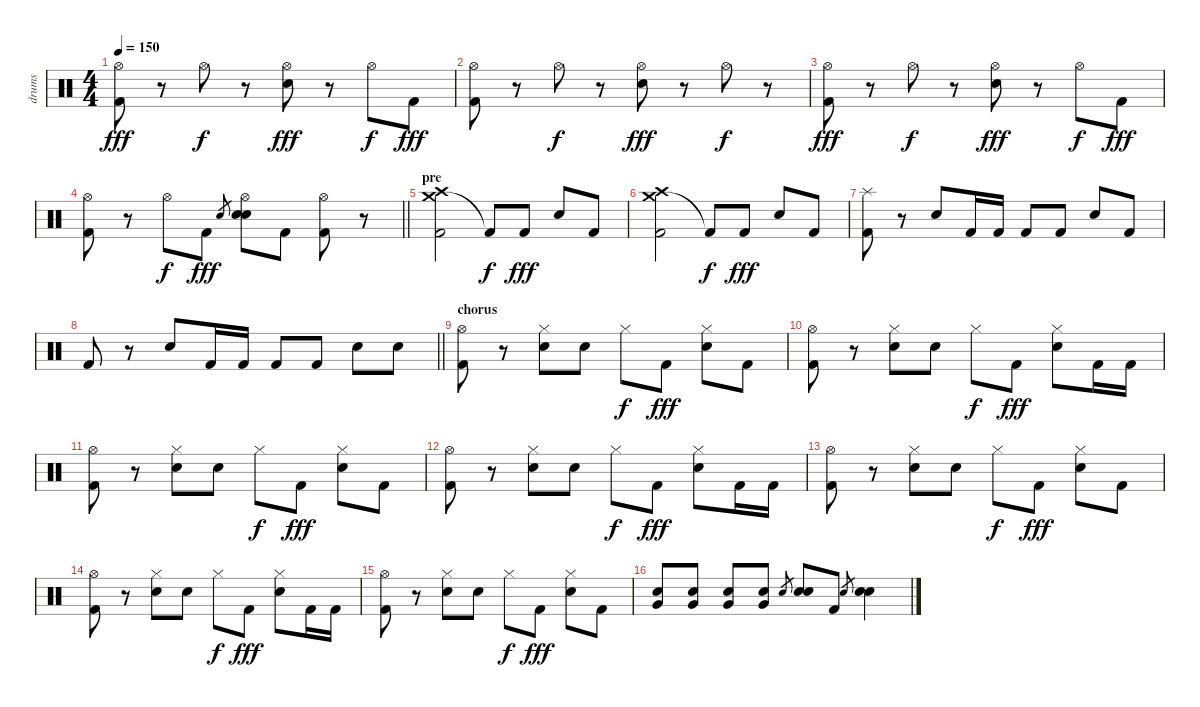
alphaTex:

\track ("drums" "drums") {instrument percussion}
\staff {score}
\articulation defaults
\ts (4 4)
\tempo 150
\clef neutral
\ks c
("Hi-Hat (open)" "Kick (hit) 2").8{dy fff} r.8 "Hi-Hat (open)".8{dy f} r.8 ("Hi-Hat (open)" "Snare (hit) 2").8{dy fff} r.8 "Hi-Hat (open)".8{dy f} "Kick (hit) 2".8{dy fff} |
("Hi-Hat (open)" "Kick (hit) 2").8 r.8 "Hi-Hat (open)".8{dy f} r.8 ("Hi-Hat (open)" "Snare (hit) 2").8{dy fff} r.8 "Hi-Hat (open)".8{dy f} r.8 |
("Hi-Hat (open)" "Kick (hit) 2").8{dy fff} r.8 "Hi-Hat (open)".8{dy f} r.8 ("Hi-Hat (open)" "Snare (hit) 2").8{dy fff} r.8 "Hi-Hat (open)".8{dy f} "Kick (hit) 2".8{dy fff} |
\barLineRight lightlight
("Hi-Hat (open)" "Kick (hit) 2").8 r.8 "Hi-Hat (open)".8{dy f} "Kick (hit) 2".8{dy fff} "Snare (hit) 2".8{gr} ("Hi-Hat (open)" "Snare (hit) 2" "Snare (hit) 2").8 "Kick (hit) 2".8 ("Hi-Hat (open)" "Kick (hit) 2").8 r.8 |
\section ("" "pre")
("Crash medium (hit)" "Crash high (hit)" "Kick (hit) 2").2 "Kick (hit) 2"{t}.8{dy f} "Kick (hit) 2".8{dy fff} "Snare (hit) 2".8 "Kick (hit) 2".8 |
("Crash medium (hit)" "Crash high (hit)" "Kick (hit) 2").2 "Kick (hit) 2"{t}.8{dy f} "Kick (hit) 2".8{dy fff} "Snare (hit) 2".8 "Kick (hit) 2".8 |
("Splash (hit)" "Kick (hit) 2").8 r.8 "Snare (hit) 2".8 "Kick (hit) 2".16 "Kick (hit) 2".16 "Kick (hit) 2".8 "Kick (hit) 2".8 "Snare (hit) 2".8 "Kick (hit) 2".8 |
\barLineRight lightlight "Kick (hit) 2".8
r.8 "Snare (hit) 2".8 "Kick (hit) 2".16 "Kick (hit) 2".16 "Kick (hit) 2".8 "Kick (hit) 2".8 "Snare (hit) 2".8 "Snare (hit) 2".8 |
\section ("" "chorus")
("Hi-Hat (open)" "Kick (hit) 2").8 r.8 ("Hi-Hat (closed)" "Snare (hit) 2").8 "Snare (hit) 2".8 "Hi-Hat (closed)".8{dy f} "Kick (hit) 2".8{dy fff} ("Hi-Hat (closed)" "Snare (hit) 2").8 "Kick (hit) 2".8 |
("Hi-Hat (open)" "Kick (hit) 2").8 r.8 ("Hi-Hat (closed)" "Snare (hit) 2").8 "Snare (hit) 2".8 "Hi-Hat (closed)".8{dy f} "Kick (hit) 2".8{dy fff} ("Hi-Hat (closed)" "Snare (hit) 2").8 "Kick (hit) 2".16 "Kick (hit) 2".16 |
("Hi-Hat (open)" "Kick (hit) 2").8 r.8 ("Hi-Hat (closed)" "Snare (hit) 2").8 "Snare (hit) 2".8 "Hi-Hat (closed)".8{dy f} "Kick (hit) 2".8{dy fff} ("Hi-Hat (closed)" "Snare (hit) 2").8 "Kick (hit) 2".8 |
("Hi-Hat (open)" "Kick (hit) 2").8 r.8 ("Hi-Hat (closed)" "Snare (hit) 2").8 "Snare (hit) 2".8 "Hi-Hat (closed)".8{dy f} "Kick (hit) 2".8{dy fff} ("Hi-Hat (closed)" "Snare (hit) 2").8 "Kick (hit) 2".16 "Kick (hit) 2".16 |
("Hi-Hat (open)" "Kick (hit) 2").8 r.8 ("Hi-Hat (closed)" "Snare (hit) 2").8 "Snare (hit) 2".8 "Hi-Hat (closed)".8{dy f} "Kick (hit) 2".8{dy fff} ("Hi-Hat (closed)" "Snare (hit) 2").8 "Kick (hit) 2".8 |
("Hi-Hat (open)" "Kick (hit) 2").8 r.8 ("Hi-Hat (closed)" "Snare (hit) 2").8 "Snare (hit) 2".8 "Hi-Hat (closed)".8{dy f} "Kick (hit) 2".8{dy fff} ("Hi-Hat (closed)" "Snare (hit) 2").8 "Kick (hit) 2".16 "Kick (hit) 2".16 |
("Hi-Hat (open)" "Kick (hit) 2").8 r.8 ("Hi-Hat (closed)" "Snare (hit) 2").8 "Snare (hit) 2".8 "Hi-Hat (closed)".8{dy f} "Kick (hit) 2".8{dy fff} ("Hi-Hat (closed)" "Snare (hit) 2").8 "Kick (hit) 2".8 |
("Very Low Tom (hit)" "Snare (hit) 2").8 ("Very Low Tom (hit)" "Snare (hit) 2").8 ("Very Low Tom (hit)" "Snare (hit) 2").8 ("Very Low Tom (hit)" "Snare (hit) 2").8 "Snare (hit) 2".8{gr} ("Snare (hit) 2" "Snare (hit) 2").8 "Kick (hit) 2".8 "Snare (hit) 2".8{gr} ("Snare (hit) 2" "Snare (hit) 2").4
